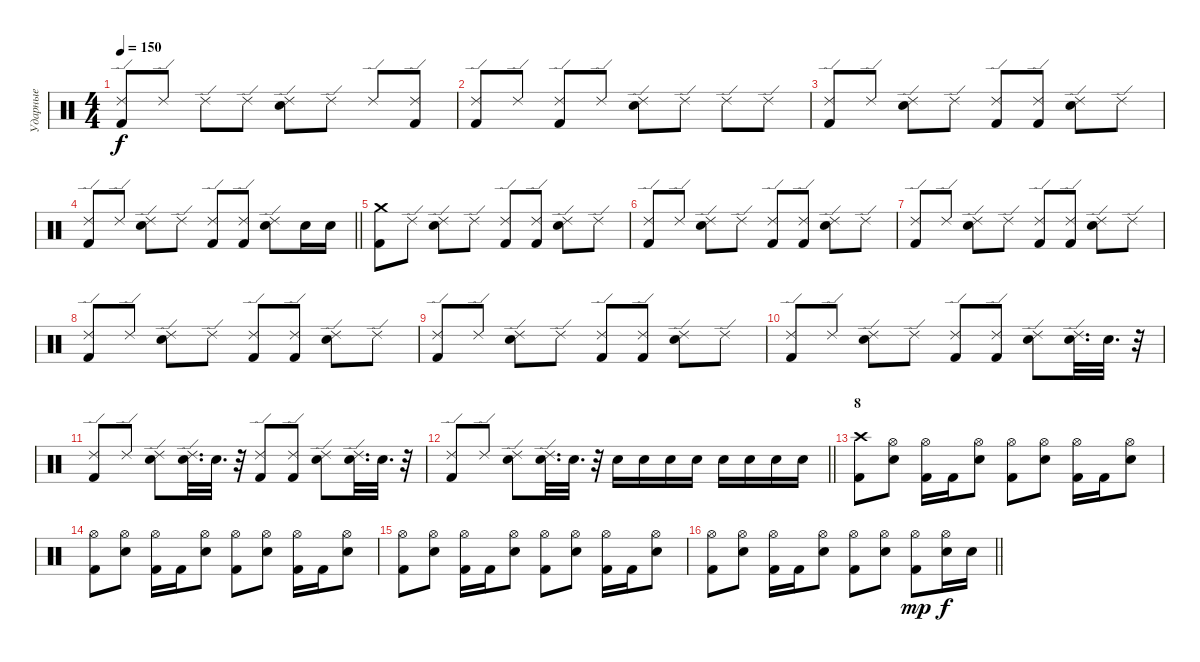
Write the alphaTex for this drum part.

\track ("Ударные" "Ударные") {instrument percussion}
\staff {score}
\articulation defaults
\ts (4 4)
\tempo 150
\clef neutral
\ks c
("Ride (edge) 2" "Kick (hit) 2").8{dy f} "Ride (edge) 2".8 "Ride (edge) 2".8 "Ride (edge) 2".8 ("Ride (edge) 2" "Electric Snare (hit)").8 "Ride (edge) 2".8 "Ride (edge) 2".8 ("Ride (edge) 2" "Kick (hit) 2").8 |
("Ride (edge) 2" "Kick (hit) 2").8 "Ride (edge) 2".8 ("Ride (edge) 2" "Kick (hit) 2").8 "Ride (edge) 2".8 ("Ride (edge) 2" "Electric Snare (hit)").8 "Ride (edge) 2".8 "Ride (edge) 2".8 "Ride (edge) 2".8 |
("Ride (edge) 2" "Kick (hit) 2").8 "Ride (edge) 2".8 ("Ride (edge) 2" "Electric Snare (hit)").8 "Ride (edge) 2".8 ("Ride (edge) 2" "Kick (hit) 2").8 ("Ride (edge) 2" "Kick (hit) 2").8 ("Ride (edge) 2" "Electric Snare (hit)").8 "Ride (edge) 2".8 |
\barLineRight lightlight
("Ride (edge) 2" "Kick (hit) 2").8 "Ride (edge) 2".8 ("Ride (edge) 2" "Electric Snare (hit)").8 "Ride (edge) 2".8 ("Ride (edge) 2" "Kick (hit) 2").8 ("Ride (edge) 2" "Kick (hit) 2").8 ("Ride (edge) 2" "Electric Snare (hit)").8 "Electric Snare (hit)".16 "Electric Snare (hit)".16 |
("Crash medium (hit)" "Kick (hit) 2").8 "Ride (edge) 2".8 ("Ride (edge) 2" "Electric Snare (hit)").8 "Ride (edge) 2".8 ("Ride (edge) 2" "Kick (hit) 2").8 ("Ride (edge) 2" "Kick (hit) 2").8 ("Ride (edge) 2" "Electric Snare (hit)").8 "Ride (edge) 2".8 |
("Ride (edge) 2" "Kick (hit) 2").8 "Ride (edge) 2".8 ("Ride (edge) 2" "Electric Snare (hit)").8 "Ride (edge) 2".8 ("Ride (edge) 2" "Kick (hit) 2").8 ("Ride (edge) 2" "Kick (hit) 2").8 ("Ride (edge) 2" "Electric Snare (hit)").8 "Ride (edge) 2".8 |
("Ride (edge) 2" "Kick (hit) 2").8 "Ride (edge) 2".8 ("Ride (edge) 2" "Electric Snare (hit)").8 "Ride (edge) 2".8 ("Ride (edge) 2" "Kick (hit) 2").8 ("Ride (edge) 2" "Kick (hit) 2").8 ("Ride (edge) 2" "Electric Snare (hit)").8 "Ride (edge) 2".8 |
("Ride (edge) 2" "Kick (hit) 2").8 "Ride (edge) 2".8 ("Ride (edge) 2" "Electric Snare (hit)").8 "Ride (edge) 2".8 ("Ride (edge) 2" "Kick (hit) 2").8 ("Ride (edge) 2" "Kick (hit) 2").8 ("Ride (edge) 2" "Electric Snare (hit)").8 "Ride (edge) 2".8 |
("Ride (edge) 2" "Kick (hit) 2").8 "Ride (edge) 2".8 ("Ride (edge) 2" "Electric Snare (hit)").8 "Ride (edge) 2".8 ("Ride (edge) 2" "Kick (hit) 2").8 ("Ride (edge) 2" "Kick (hit) 2").8 ("Ride (edge) 2" "Electric Snare (hit)").8 "Ride (edge) 2".8 |
("Ride (edge) 2" "Kick (hit) 2").8 "Ride (edge) 2".8 ("Ride (edge) 2" "Electric Snare (hit)").8 "Ride (edge) 2".8 ("Ride (edge) 2" "Kick (hit) 2").8 ("Ride (edge) 2" "Kick (hit) 2").8 ("Ride (edge) 2" "Electric Snare (hit)").8 ("Ride (edge) 2" "Electric Snare (hit)").32{d} "Electric Snare (hit)".32{d} r.32 |
("Ride (edge) 2" "Kick (hit) 2").8 "Ride (edge) 2".8 ("Ride (edge) 2" "Electric Snare (hit)").8 ("Ride (edge) 2" "Electric Snare (hit)").32{d} "Electric Snare (hit)".32{d} r.32 ("Ride (edge) 2" "Kick (hit) 2").8 ("Ride (edge) 2" "Kick (hit) 2").8 ("Ride (edge) 2" "Electric Snare (hit)").8 ("Ride (edge) 2" "Electric Snare (hit)").32{d} "Electric Snare (hit)".32{d} r.32 |
\barLineRight lightlight
("Ride (edge) 2" "Kick (hit) 2").8 "Ride (edge) 2".8 ("Ride (edge) 2" "Electric Snare (hit)").8 ("Ride (edge) 2" "Electric Snare (hit)").32{d} "Electric Snare (hit)".32{d} r.32 "Electric Snare (hit)".16 "Electric Snare (hit)".16 "Electric Snare (hit)".16 "Electric Snare (hit)".16 "Electric Snare (hit)".16 "Electric Snare (hit)".16 "Electric Snare (hit)".16 "Electric Snare (hit)".16 |
\section ("" "8")
("Crash high (hit)" "Kick (hit) 2").8 ("Hi-Hat (open)" "Electric Snare (hit)").8 ("Hi-Hat (open)" "Kick (hit) 2").16 "Kick (hit) 2".16 ("Hi-Hat (open)" "Electric Snare (hit)").8 ("Hi-Hat (open)" "Kick (hit) 2").8 ("Hi-Hat (open)" "Electric Snare (hit)").8 ("Hi-Hat (open)" "Kick (hit) 2").16 "Kick (hit) 2".16 ("Hi-Hat (open)" "Electric Snare (hit)").8 |
("Hi-Hat (open)" "Kick (hit) 2").8 ("Hi-Hat (open)" "Electric Snare (hit)").8 ("Hi-Hat (open)" "Kick (hit) 2").16 "Kick (hit) 2".16 ("Hi-Hat (open)" "Electric Snare (hit)").8 ("Hi-Hat (open)" "Kick (hit) 2").8 ("Hi-Hat (open)" "Electric Snare (hit)").8 ("Hi-Hat (open)" "Kick (hit) 2").16 "Kick (hit) 2".16 ("Hi-Hat (open)" "Electric Snare (hit)").8 |
("Hi-Hat (open)" "Kick (hit) 2").8 ("Hi-Hat (open)" "Electric Snare (hit)").8 ("Hi-Hat (open)" "Kick (hit) 2").16 "Kick (hit) 2".16 ("Hi-Hat (open)" "Electric Snare (hit)").8 ("Hi-Hat (open)" "Kick (hit) 2").8 ("Hi-Hat (open)" "Electric Snare (hit)").8 ("Hi-Hat (open)" "Kick (hit) 2").16 "Kick (hit) 2".16 ("Hi-Hat (open)" "Electric Snare (hit)").8 |
\barLineRight lightlight
("Hi-Hat (open)" "Kick (hit) 2").8 ("Hi-Hat (open)" "Electric Snare (hit)").8 ("Hi-Hat (open)" "Kick (hit) 2").16 "Kick (hit) 2".16 ("Hi-Hat (open)" "Electric Snare (hit)").8 ("Hi-Hat (open)" "Kick (hit) 2").8 ("Hi-Hat (open)" "Electric Snare (hit)").8 ("Hi-Hat (open)" "Kick (hit) 2").8{dy mp} ("Hi-Hat (open)" "Electric Snare (hit)").16{dy f} "Electric Snare (hit)".16
